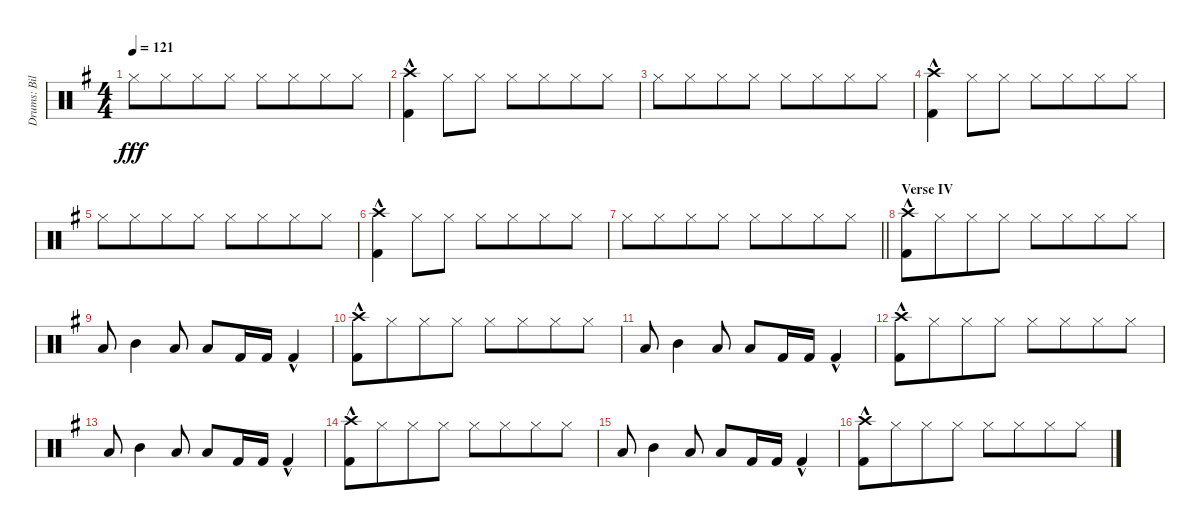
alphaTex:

\track ("Drums: Bill" "Drums: Bil") {instrument percussion}
\staff {score}
\articulation defaults
\ts (4 4)
\tempo 121
\clef neutral
\ks g "Hi-Hat (closed)".8{dy fff beam merge} "Hi-Hat (closed)".8{beam merge} "Hi-Hat (closed)".8 "Hi-Hat (closed)".8 "Hi-Hat (closed)".8{beam merge} "Hi-Hat (closed)".8{beam merge} "Hi-Hat (closed)".8 "Hi-Hat (closed)".8
|
("Crash high (hit)" "Kick (hit) 2"{hac}).4{beam merge} "Hi-Hat (closed)".8 "Hi-Hat (closed)".8 "Hi-Hat (closed)".8{beam merge} "Hi-Hat (closed)".8{beam merge} "Hi-Hat (closed)".8 "Hi-Hat (closed)".8 |
"Hi-Hat (closed)".8{beam merge} "Hi-Hat (closed)".8{beam merge} "Hi-Hat (closed)".8 "Hi-Hat (closed)".8 "Hi-Hat (closed)".8{beam merge} "Hi-Hat (closed)".8{beam merge} "Hi-Hat (closed)".8 "Hi-Hat (closed)".8 |
("Crash high (hit)" "Kick (hit) 2"{hac}).4{beam merge} "Hi-Hat (closed)".8 "Hi-Hat (closed)".8 "Hi-Hat (closed)".8{beam merge} "Hi-Hat (closed)".8{beam merge} "Hi-Hat (closed)".8 "Hi-Hat (closed)".8 |
"Hi-Hat (closed)".8{beam merge} "Hi-Hat (closed)".8{beam merge} "Hi-Hat (closed)".8 "Hi-Hat (closed)".8 "Hi-Hat (closed)".8{beam merge} "Hi-Hat (closed)".8{beam merge} "Hi-Hat (closed)".8 "Hi-Hat (closed)".8 |
("Crash high (hit)" "Kick (hit) 2"{hac}).4{beam merge} "Hi-Hat (closed)".8 "Hi-Hat (closed)".8 "Hi-Hat (closed)".8{beam merge} "Hi-Hat (closed)".8{beam merge} "Hi-Hat (closed)".8 "Hi-Hat (closed)".8 |
\barLineRight lightlight "Hi-Hat (closed)".8{beam merge} "Hi-Hat (closed)".8{beam merge} "Hi-Hat (closed)".8 "Hi-Hat (closed)".8 "Hi-Hat (closed)".8{beam merge} "Hi-Hat (closed)".8{beam merge} "Hi-Hat (closed)".8 "Hi-Hat (closed)".8
|
\section ("" "Verse IV")
("Crash high (hit)" "Kick (hit) 2"{hac}).8 "Hi-Hat (closed)".8{beam merge} "Hi-Hat (closed)".8 "Hi-Hat (closed)".8 "Hi-Hat (closed)".8{beam merge} "Hi-Hat (closed)".8{beam merge} "Hi-Hat (closed)".8 "Hi-Hat (closed)".8 |
"Low Tom (hit)".8 "Mid Tom (hit)".4 "Low Tom (hit)".8 "Low Floor Tom (hit)".8 "Kick (hit) 2".16 "Kick (hit) 2".16 "Kick (hit) 2"{hac}.4 |
("Crash high (hit)" "Kick (hit) 2"{hac}).8 "Hi-Hat (closed)".8{beam merge} "Hi-Hat (closed)".8 "Hi-Hat (closed)".8 "Hi-Hat (closed)".8{beam merge} "Hi-Hat (closed)".8{beam merge} "Hi-Hat (closed)".8 "Hi-Hat (closed)".8 |
"Low Tom (hit)".8 "Mid Tom (hit)".4 "Low Tom (hit)".8 "Low Floor Tom (hit)".8 "Kick (hit) 2".16 "Kick (hit) 2".16 "Kick (hit) 2"{hac}.4 |
("Crash high (hit)" "Kick (hit) 2"{hac}).8 "Hi-Hat (closed)".8{beam merge} "Hi-Hat (closed)".8 "Hi-Hat (closed)".8 "Hi-Hat (closed)".8{beam merge} "Hi-Hat (closed)".8{beam merge} "Hi-Hat (closed)".8 "Hi-Hat (closed)".8 |
"Low Tom (hit)".8 "Mid Tom (hit)".4 "Low Tom (hit)".8 "Low Floor Tom (hit)".8 "Kick (hit) 2".16 "Kick (hit) 2".16 "Kick (hit) 2"{hac}.4 |
("Crash high (hit)" "Kick (hit) 2"{hac}).8 "Hi-Hat (closed)".8{beam merge} "Hi-Hat (closed)".8 "Hi-Hat (closed)".8 "Hi-Hat (closed)".8{beam merge} "Hi-Hat (closed)".8{beam merge} "Hi-Hat (closed)".8 "Hi-Hat (closed)".8 |
"Low Tom (hit)".8 "Mid Tom (hit)".4 "Low Tom (hit)".8 "Low Floor Tom (hit)".8 "Kick (hit) 2".16 "Kick (hit) 2".16 "Kick (hit) 2"{hac}.4 |
("Crash high (hit)" "Kick (hit) 2"{hac}).8 "Hi-Hat (closed)".8{beam merge} "Hi-Hat (closed)".8 "Hi-Hat (closed)".8 "Hi-Hat (closed)".8{beam merge} "Hi-Hat (closed)".8{beam merge} "Hi-Hat (closed)".8 "Hi-Hat (closed)".8
